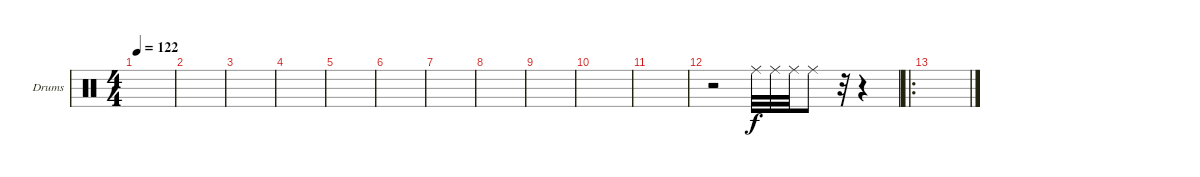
\defaultSystemsLayout 4
\bracketExtendMode groupsimilarinstruments
\firstSystemTrackNameOrientation horizontal
\otherSystemsTrackNameOrientation horizontal
\track ("Drumkit" "Drums") {instrument percussion}
\staff {score}
\articulation defaults
\ts (4 4)
\tempo 122
\clef neutral
\scale
0.472222
\ks c
|
\scale
0.263889 |
\scale
0.263889 |
\scale
0.333333 |
\scale
0.333333 |
\scale
0.333333 |
\scale
0.333333 |
\scale
0.333333 |
\scale
0.333333 |
\scale
0.333333 |
\scale
0.333333 |
\scale
0.333333 r.2 "Ride (middle)".32 "Ride (middle)".32 "Ride (middle)".32 "Ride (middle)".8 r.32 r.4 |
\ro
\scale
0.333333 |
\scale
0.333333 |
\scale
0.333333 |
\scale
0.333333
